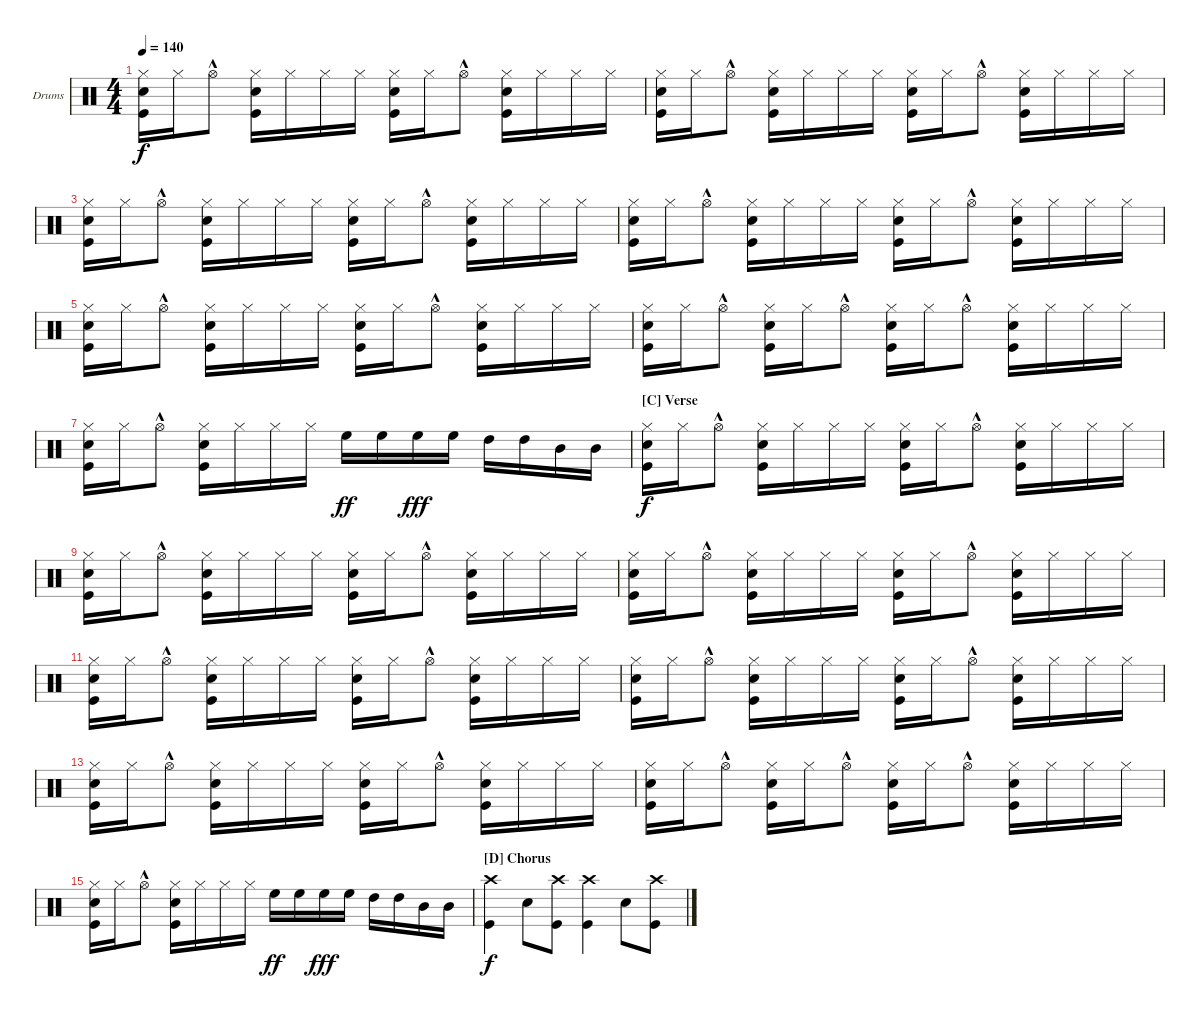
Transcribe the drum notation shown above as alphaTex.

\bracketExtendMode nobrackets
\firstSystemTrackNameOrientation horizontal
\otherSystemsTrackNameOrientation horizontal
\defaultBarNumberDisplay FirstOfSystem
\track ("Drumkit" "Drums") {instrument percussion}
\staff {score}
\articulation defaults
\ts (4 4)
\tempo 140
\clef neutral
\ks c
("Hi-Hat (closed)" "Kick (hit)" "Snare (hit) 2").16{dy f} "Hi-Hat (closed)".16 "Hi-Hat (open)"{hac}.8 ("Hi-Hat (closed)" "Kick (hit)" "Snare (hit) 2").16 "Hi-Hat (closed)".16 "Hi-Hat (closed)".16 "Hi-Hat (closed)".16 ("Hi-Hat (closed)" "Kick (hit)" "Snare (hit) 2").16 "Hi-Hat (closed)".16 "Hi-Hat (open)"{hac}.8 ("Hi-Hat (closed)" "Kick (hit)" "Snare (hit) 2").16 "Hi-Hat (closed)".16 "Hi-Hat (closed)".16 "Hi-Hat (closed)".16 |
("Hi-Hat (closed)" "Kick (hit)" "Snare (hit) 2").16 "Hi-Hat (closed)".16 "Hi-Hat (open)"{hac}.8 ("Hi-Hat (closed)" "Kick (hit)" "Snare (hit) 2").16 "Hi-Hat (closed)".16 "Hi-Hat (closed)".16 "Hi-Hat (closed)".16 ("Hi-Hat (closed)" "Kick (hit)" "Snare (hit) 2").16 "Hi-Hat (closed)".16 "Hi-Hat (open)"{hac}.8 ("Hi-Hat (closed)" "Kick (hit)" "Snare (hit) 2").16 "Hi-Hat (closed)".16 "Hi-Hat (closed)".16 "Hi-Hat (closed)".16 |
("Hi-Hat (closed)" "Kick (hit)" "Snare (hit) 2").16 "Hi-Hat (closed)".16 "Hi-Hat (open)"{hac}.8 ("Hi-Hat (closed)" "Kick (hit)" "Snare (hit) 2").16 "Hi-Hat (closed)".16 "Hi-Hat (closed)".16 "Hi-Hat (closed)".16 ("Hi-Hat (closed)" "Kick (hit)" "Snare (hit) 2").16 "Hi-Hat (closed)".16 "Hi-Hat (open)"{hac}.8 ("Hi-Hat (closed)" "Kick (hit)" "Snare (hit) 2").16 "Hi-Hat (closed)".16 "Hi-Hat (closed)".16 "Hi-Hat (closed)".16 |
("Hi-Hat (closed)" "Kick (hit)" "Snare (hit) 2").16 "Hi-Hat (closed)".16 "Hi-Hat (open)"{hac}.8 ("Hi-Hat (closed)" "Kick (hit)" "Snare (hit) 2").16 "Hi-Hat (closed)".16 "Hi-Hat (closed)".16 "Hi-Hat (closed)".16 ("Hi-Hat (closed)" "Kick (hit)" "Snare (hit) 2").16 "Hi-Hat (closed)".16 "Hi-Hat (open)"{hac}.8 ("Hi-Hat (closed)" "Kick (hit)" "Snare (hit) 2").16 "Hi-Hat (closed)".16 "Hi-Hat (closed)".16 "Hi-Hat (closed)".16 |
("Hi-Hat (closed)" "Kick (hit)" "Snare (hit) 2").16 "Hi-Hat (closed)".16 "Hi-Hat (open)"{hac}.8 ("Hi-Hat (closed)" "Kick (hit)" "Snare (hit) 2").16 "Hi-Hat (closed)".16 "Hi-Hat (closed)".16 "Hi-Hat (closed)".16 ("Hi-Hat (closed)" "Kick (hit)" "Snare (hit) 2").16 "Hi-Hat (closed)".16 "Hi-Hat (open)"{hac}.8 ("Hi-Hat (closed)" "Kick (hit)" "Snare (hit) 2").16 "Hi-Hat (closed)".16 "Hi-Hat (closed)".16 "Hi-Hat (closed)".16 |
("Hi-Hat (closed)" "Kick (hit)" "Snare (hit) 2").16 "Hi-Hat (closed)".16 "Hi-Hat (open)"{hac}.8 ("Hi-Hat (closed)" "Kick (hit)" "Snare (hit) 2").16 "Hi-Hat (closed)".16 "Hi-Hat (open)"{hac}.8 ("Hi-Hat (closed)" "Kick (hit)" "Snare (hit) 2").16 "Hi-Hat (closed)".16 "Hi-Hat (open)"{hac}.8 ("Hi-Hat (closed)" "Kick (hit)" "Snare (hit) 2").16 "Hi-Hat (closed)".16 "Hi-Hat (closed)".16 "Hi-Hat (closed)".16 |
("Hi-Hat (closed)" "Kick (hit)" "Snare (hit) 2").16 "Hi-Hat (closed)".16 "Hi-Hat (open)"{hac}.8 ("Hi-Hat (closed)" "Kick (hit)" "Snare (hit) 2").16 "Hi-Hat (closed)".16 "Hi-Hat (closed)".16 "Hi-Hat (closed)".16 "High Floor Tom (hit)".16{dy ff} "High Floor Tom (hit)".16 "High Floor Tom (hit)".16{dy fff} "High Floor Tom (hit)".16 "High Tom (hit)".16 "High Tom (hit)".16 "Mid Tom (hit)".16 "Mid Tom (hit)".16 |
\section ("C" "Verse")
("Hi-Hat (closed)" "Kick (hit)" "Snare (hit) 2").16{dy f} "Hi-Hat (closed)".16 "Hi-Hat (open)"{hac}.8 ("Hi-Hat (closed)" "Kick (hit)" "Snare (hit) 2").16 "Hi-Hat (closed)".16 "Hi-Hat (closed)".16 "Hi-Hat (closed)".16 ("Hi-Hat (closed)" "Kick (hit)" "Snare (hit) 2").16 "Hi-Hat (closed)".16 "Hi-Hat (open)"{hac}.8 ("Hi-Hat (closed)" "Kick (hit)" "Snare (hit) 2").16 "Hi-Hat (closed)".16 "Hi-Hat (closed)".16 "Hi-Hat (closed)".16 |
("Hi-Hat (closed)" "Kick (hit)" "Snare (hit) 2").16 "Hi-Hat (closed)".16 "Hi-Hat (open)"{hac}.8 ("Hi-Hat (closed)" "Kick (hit)" "Snare (hit) 2").16 "Hi-Hat (closed)".16 "Hi-Hat (closed)".16 "Hi-Hat (closed)".16 ("Hi-Hat (closed)" "Kick (hit)" "Snare (hit) 2").16 "Hi-Hat (closed)".16 "Hi-Hat (open)"{hac}.8 ("Hi-Hat (closed)" "Kick (hit)" "Snare (hit) 2").16 "Hi-Hat (closed)".16 "Hi-Hat (closed)".16 "Hi-Hat (closed)".16 |
("Hi-Hat (closed)" "Kick (hit)" "Snare (hit) 2").16 "Hi-Hat (closed)".16 "Hi-Hat (open)"{hac}.8 ("Hi-Hat (closed)" "Kick (hit)" "Snare (hit) 2").16 "Hi-Hat (closed)".16 "Hi-Hat (closed)".16 "Hi-Hat (closed)".16 ("Hi-Hat (closed)" "Kick (hit)" "Snare (hit) 2").16 "Hi-Hat (closed)".16 "Hi-Hat (open)"{hac}.8 ("Hi-Hat (closed)" "Kick (hit)" "Snare (hit) 2").16 "Hi-Hat (closed)".16 "Hi-Hat (closed)".16 "Hi-Hat (closed)".16 |
("Hi-Hat (closed)" "Kick (hit)" "Snare (hit) 2").16 "Hi-Hat (closed)".16 "Hi-Hat (open)"{hac}.8 ("Hi-Hat (closed)" "Kick (hit)" "Snare (hit) 2").16 "Hi-Hat (closed)".16 "Hi-Hat (closed)".16 "Hi-Hat (closed)".16 ("Hi-Hat (closed)" "Kick (hit)" "Snare (hit) 2").16 "Hi-Hat (closed)".16 "Hi-Hat (open)"{hac}.8 ("Hi-Hat (closed)" "Kick (hit)" "Snare (hit) 2").16 "Hi-Hat (closed)".16 "Hi-Hat (closed)".16 "Hi-Hat (closed)".16 |
("Hi-Hat (closed)" "Kick (hit)" "Snare (hit) 2").16 "Hi-Hat (closed)".16 "Hi-Hat (open)"{hac}.8 ("Hi-Hat (closed)" "Kick (hit)" "Snare (hit) 2").16 "Hi-Hat (closed)".16 "Hi-Hat (closed)".16 "Hi-Hat (closed)".16 ("Hi-Hat (closed)" "Kick (hit)" "Snare (hit) 2").16 "Hi-Hat (closed)".16 "Hi-Hat (open)"{hac}.8 ("Hi-Hat (closed)" "Kick (hit)" "Snare (hit) 2").16 "Hi-Hat (closed)".16 "Hi-Hat (closed)".16 "Hi-Hat (closed)".16 |
("Hi-Hat (closed)" "Kick (hit)" "Snare (hit) 2").16 "Hi-Hat (closed)".16 "Hi-Hat (open)"{hac}.8 ("Hi-Hat (closed)" "Kick (hit)" "Snare (hit) 2").16 "Hi-Hat (closed)".16 "Hi-Hat (closed)".16 "Hi-Hat (closed)".16 ("Hi-Hat (closed)" "Kick (hit)" "Snare (hit) 2").16 "Hi-Hat (closed)".16 "Hi-Hat (open)"{hac}.8 ("Hi-Hat (closed)" "Kick (hit)" "Snare (hit) 2").16 "Hi-Hat (closed)".16 "Hi-Hat (closed)".16 "Hi-Hat (closed)".16 |
("Hi-Hat (closed)" "Kick (hit)" "Snare (hit) 2").16 "Hi-Hat (closed)".16 "Hi-Hat (open)"{hac}.8 ("Hi-Hat (closed)" "Kick (hit)" "Snare (hit) 2").16 "Hi-Hat (closed)".16 "Hi-Hat (open)"{hac}.8 ("Hi-Hat (closed)" "Kick (hit)" "Snare (hit) 2").16 "Hi-Hat (closed)".16 "Hi-Hat (open)"{hac}.8 ("Hi-Hat (closed)" "Kick (hit)" "Snare (hit) 2").16 "Hi-Hat (closed)".16 "Hi-Hat (closed)".16 "Hi-Hat (closed)".16 |
("Hi-Hat (closed)" "Kick (hit)" "Snare (hit) 2").16 "Hi-Hat (closed)".16 "Hi-Hat (open)"{hac}.8 ("Hi-Hat (closed)" "Kick (hit)" "Snare (hit) 2").16 "Hi-Hat (closed)".16 "Hi-Hat (closed)".16 "Hi-Hat (closed)".16 "High Floor Tom (hit)".16{dy ff} "High Floor Tom (hit)".16 "High Floor Tom (hit)".16{dy fff} "High Floor Tom (hit)".16 "High Tom (hit)".16 "High Tom (hit)".16 "Mid Tom (hit)".16 "Mid Tom (hit)".16 |
\section ("D" "Chorus")
("Kick (hit)" "Crash high (hit)").4{dy f} "Snare (hit) 2".8 ("Crash high (hit)" "Kick (hit)").8 ("Crash high (hit)" "Kick (hit)").4 "Snare (hit) 2".8 ("Crash high (hit)" "Kick (hit)").8
